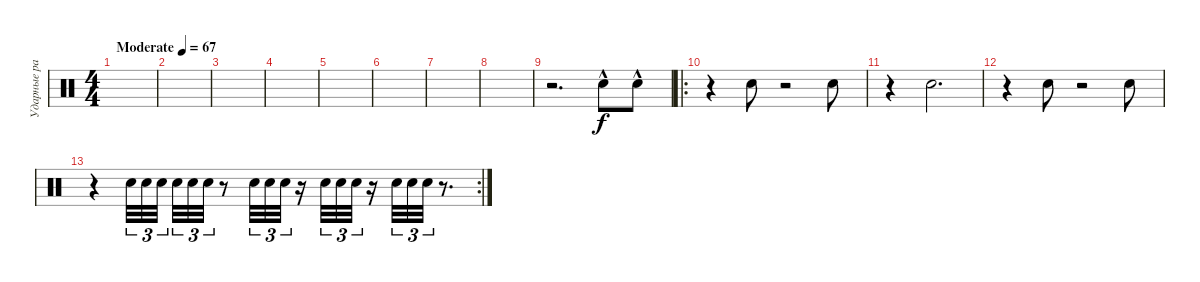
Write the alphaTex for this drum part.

\track ("Ударные рабочий" "Ударные ра") {instrument percussion}
\staff {score}
\articulation defaults
\ts (4 4)
\tempo (67 "Moderate")
\clef neutral
\ks c
|
|
|
|
|
|
|
|
r.2{d} "Snare (hit) 2"{hac}.8 "Snare (hit) 2"{hac}.8 |
\ro
r.4 "Snare (hit) 2".8{dy f} r.2 "Snare (hit) 2".8 |
r.4 "Snare (hit) 2".2{d} |
r.4 "Snare (hit) 2".8 r.2 "Snare (hit) 2".8 |
\rc 2
r.4 "Snare (hit) 2".32{tu (3 2)} "Snare (hit) 2".32{tu (3 2)} "Snare (hit) 2".32{tu (3 2) beam splitsecondary} "Snare (hit) 2".32{tu (3 2)} "Snare (hit) 2".32{tu (3 2)} "Snare (hit) 2".32{tu (3 2)} r.8 "Snare (hit) 2".32{tu (3 2)} "Snare (hit) 2".32{tu (3 2)} "Snare (hit) 2".32{tu (3 2)} r.16 "Snare (hit) 2".32{tu (3 2)} "Snare (hit) 2".32{tu (3 2)} "Snare (hit) 2".32{tu (3 2)} r.16 "Snare (hit) 2".32{tu (3 2)} "Snare (hit) 2".32{tu (3 2)} "Snare (hit) 2".32{tu (3 2)} r.8{d}
